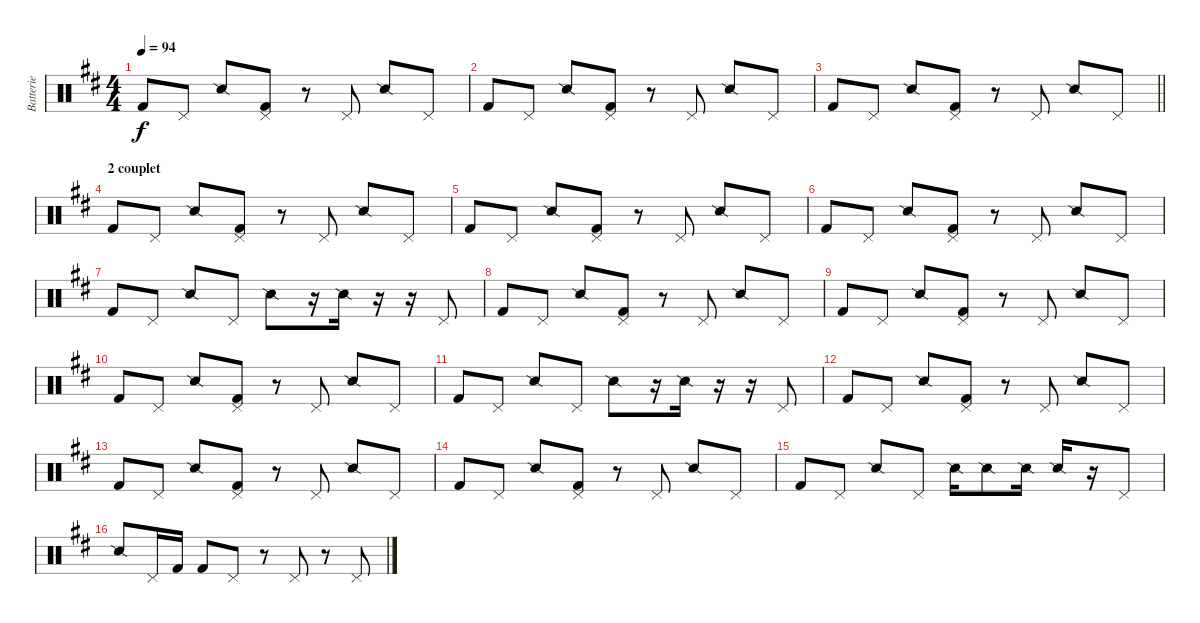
\track ("Batterie" "Batterie") {instrument percussion}
\staff {score}
\articulation defaults
\ts (4 4)
\tempo 94
\clef neutral
\ks d "Kick (hit) 2".8{dy f} "Pedal Hi-Hat (hit)".8 "Snare (side stick) 2".8
("Pedal Hi-Hat (hit)" "Kick (hit) 2").8 r.8 "Pedal Hi-Hat (hit)".8 "Snare (side stick) 2".8 "Pedal Hi-Hat (hit)".8 |
"Kick (hit) 2".8 "Pedal Hi-Hat (hit)".8 "Snare (side stick) 2".8 ("Pedal Hi-Hat (hit)" "Kick (hit) 2").8 r.8 "Pedal Hi-Hat (hit)".8 "Snare (side stick) 2".8 "Pedal Hi-Hat (hit)".8 |
\barLineRight lightlight "Kick (hit) 2".8 "Pedal Hi-Hat (hit)".8 "Snare (side stick) 2".8
("Pedal Hi-Hat (hit)" "Kick (hit) 2").8 r.8 "Pedal Hi-Hat (hit)".8 "Snare (side stick) 2".8 "Pedal Hi-Hat (hit)".8 |
\section ("" "2 couplet")
"Kick (hit) 2".8 "Pedal Hi-Hat (hit)".8 "Snare (side stick) 2".8 ("Pedal Hi-Hat (hit)" "Kick (hit) 2").8 r.8 "Pedal Hi-Hat (hit)".8 "Snare (side stick) 2".8 "Pedal Hi-Hat (hit)".8 |
"Kick (hit) 2".8 "Pedal Hi-Hat (hit)".8 "Snare (side stick) 2".8 ("Pedal Hi-Hat (hit)" "Kick (hit) 2").8 r.8 "Pedal Hi-Hat (hit)".8 "Snare (side stick) 2".8 "Pedal Hi-Hat (hit)".8 |
"Kick (hit) 2".8 "Pedal Hi-Hat (hit)".8 "Snare (side stick) 2".8 ("Pedal Hi-Hat (hit)" "Kick (hit) 2").8 r.8 "Pedal Hi-Hat (hit)".8 "Snare (side stick) 2".8 "Pedal Hi-Hat (hit)".8 |
"Kick (hit) 2".8 "Pedal Hi-Hat (hit)".8 "Snare (side stick) 2".8 "Pedal Hi-Hat (hit)".8 "Snare (side stick) 2".8 r.16 "Snare (side stick) 2".16 r.16 r.16 "Pedal Hi-Hat (hit)".8 |
"Kick (hit) 2".8 "Pedal Hi-Hat (hit)".8 "Snare (side stick) 2".8 ("Pedal Hi-Hat (hit)" "Kick (hit) 2").8 r.8 "Pedal Hi-Hat (hit)".8 "Snare (side stick) 2".8 "Pedal Hi-Hat (hit)".8 |
"Kick (hit) 2".8 "Pedal Hi-Hat (hit)".8 "Snare (side stick) 2".8 ("Pedal Hi-Hat (hit)" "Kick (hit) 2").8 r.8 "Pedal Hi-Hat (hit)".8 "Snare (side stick) 2".8 "Pedal Hi-Hat (hit)".8 |
"Kick (hit) 2".8 "Pedal Hi-Hat (hit)".8 "Snare (side stick) 2".8 ("Pedal Hi-Hat (hit)" "Kick (hit) 2").8 r.8 "Pedal Hi-Hat (hit)".8 "Snare (side stick) 2".8 "Pedal Hi-Hat (hit)".8 |
"Kick (hit) 2".8 "Pedal Hi-Hat (hit)".8 "Snare (side stick) 2".8 "Pedal Hi-Hat (hit)".8 "Snare (side stick) 2".8 r.16 "Snare (side stick) 2".16 r.16 r.16 "Pedal Hi-Hat (hit)".8 |
"Kick (hit) 2".8 "Pedal Hi-Hat (hit)".8 "Snare (side stick) 2".8 ("Pedal Hi-Hat (hit)" "Kick (hit) 2").8 r.8 "Pedal Hi-Hat (hit)".8 "Snare (side stick) 2".8 "Pedal Hi-Hat (hit)".8 |
"Kick (hit) 2".8 "Pedal Hi-Hat (hit)".8 "Snare (side stick) 2".8 ("Pedal Hi-Hat (hit)" "Kick (hit) 2").8 r.8 "Pedal Hi-Hat (hit)".8 "Snare (side stick) 2".8 "Pedal Hi-Hat (hit)".8 |
"Kick (hit) 2".8 "Pedal Hi-Hat (hit)".8 "Snare (side stick) 2".8 ("Pedal Hi-Hat (hit)" "Kick (hit) 2").8 r.8 "Pedal Hi-Hat (hit)".8 "Snare (side stick) 2".8 "Pedal Hi-Hat (hit)".8 |
"Kick (hit) 2".8 "Pedal Hi-Hat (hit)".8 "Snare (side stick) 2".8 "Pedal Hi-Hat (hit)".8 "Snare (side stick) 2".16 "Snare (side stick) 2".8 "Snare (side stick) 2".16 "Snare (side stick) 2".16 r.16 "Pedal Hi-Hat (hit)".8 |
"Snare (side stick) 2".8 "Pedal Hi-Hat (hit)".16 "Kick (hit) 2".16 "Kick (hit) 2".8 "Pedal Hi-Hat (hit)".8 r.8 "Pedal Hi-Hat (hit)".8 r.8 "Pedal Hi-Hat (hit)".8
